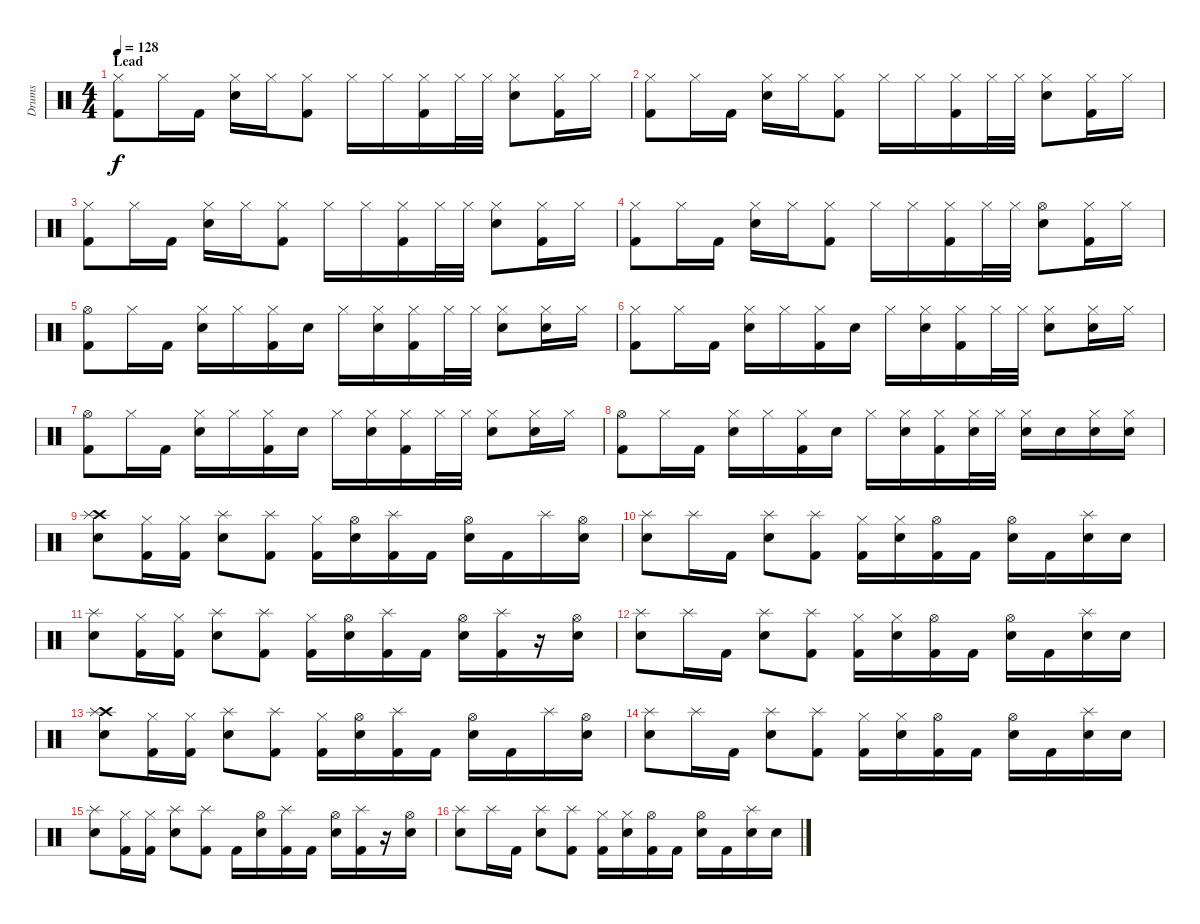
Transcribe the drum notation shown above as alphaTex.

\track ("Drums" "Drums") {instrument percussion}
\staff {score}
\articulation defaults
\ts (4 4)
\section ("" "Lead")
\tempo 128
\clef neutral
\ks c
("Hi-Hat (closed)" "Kick (hit) 2").8{dy f} "Hi-Hat (closed)".16 "Kick (hit) 2".16 ("Hi-Hat (closed)" "Snare (hit) 2").16 "Hi-Hat (closed)".16 ("Hi-Hat (closed)" "Kick (hit) 2").8 "Hi-Hat (closed)".16 "Hi-Hat (closed)".16 ("Hi-Hat (closed)" "Kick (hit) 2").16 "Hi-Hat (closed)".32 "Hi-Hat (closed)".32 ("Hi-Hat (closed)" "Snare (hit) 2").8 ("Hi-Hat (closed)" "Kick (hit) 2").16 "Hi-Hat (closed)".16 |
("Hi-Hat (closed)" "Kick (hit) 2").8 "Hi-Hat (closed)".16 "Kick (hit) 2".16 ("Hi-Hat (closed)" "Snare (hit) 2").16 "Hi-Hat (closed)".16 ("Hi-Hat (closed)" "Kick (hit) 2").8 "Hi-Hat (closed)".16 "Hi-Hat (closed)".16 ("Hi-Hat (closed)" "Kick (hit) 2").16 "Hi-Hat (closed)".32 "Hi-Hat (closed)".32 ("Hi-Hat (closed)" "Snare (hit) 2").8 ("Hi-Hat (closed)" "Kick (hit) 2").16 "Hi-Hat (closed)".16 |
("Hi-Hat (closed)" "Kick (hit) 2").8 "Hi-Hat (closed)".16 "Kick (hit) 2".16 ("Hi-Hat (closed)" "Snare (hit) 2").16 "Hi-Hat (closed)".16 ("Hi-Hat (closed)" "Kick (hit) 2").8 "Hi-Hat (closed)".16 "Hi-Hat (closed)".16 ("Hi-Hat (closed)" "Kick (hit) 2").16 "Hi-Hat (closed)".32 "Hi-Hat (closed)".32 ("Hi-Hat (closed)" "Snare (hit) 2").8 ("Hi-Hat (closed)" "Kick (hit) 2").16 "Hi-Hat (closed)".16 |
("Hi-Hat (closed)" "Kick (hit) 2").8 "Hi-Hat (closed)".16 "Kick (hit) 2".16 ("Hi-Hat (closed)" "Snare (hit) 2").16 "Hi-Hat (closed)".16 ("Hi-Hat (closed)" "Kick (hit) 2").8 "Hi-Hat (closed)".16 "Hi-Hat (closed)".16 ("Hi-Hat (closed)" "Kick (hit) 2").16 "Hi-Hat (closed)".32 "Hi-Hat (closed)".32 ("Hi-Hat (open)" "Snare (hit) 2").8 ("Hi-Hat (closed)" "Kick (hit) 2").16 "Hi-Hat (closed)".16 |
("Hi-Hat (open)" "Kick (hit) 2").8 "Hi-Hat (closed)".16 "Kick (hit) 2".16 ("Hi-Hat (closed)" "Snare (hit) 2").16 "Hi-Hat (closed)".16 ("Hi-Hat (closed)" "Kick (hit) 2").16 "Snare (hit) 2".16 "Hi-Hat (closed)".16 ("Hi-Hat (closed)" "Snare (hit) 2").16 ("Hi-Hat (closed)" "Kick (hit) 2").16 "Hi-Hat (closed)".32 "Hi-Hat (closed)".32 ("Hi-Hat (closed)" "Snare (hit) 2").8 ("Hi-Hat (closed)" "Snare (hit) 2").16 "Hi-Hat (closed)".16 |
("Hi-Hat (closed)" "Kick (hit) 2").8 "Hi-Hat (closed)".16 "Kick (hit) 2".16 ("Hi-Hat (closed)" "Snare (hit) 2").16 "Hi-Hat (closed)".16 ("Hi-Hat (closed)" "Kick (hit) 2").16 "Snare (hit) 2".16 "Hi-Hat (closed)".16 ("Hi-Hat (closed)" "Snare (hit) 2").16 ("Hi-Hat (closed)" "Kick (hit) 2").16 "Hi-Hat (closed)".32 "Hi-Hat (closed)".32 ("Hi-Hat (closed)" "Snare (hit) 2").8 ("Hi-Hat (closed)" "Snare (hit) 2").16 "Hi-Hat (closed)".16 |
("Hi-Hat (open)" "Kick (hit) 2").8 "Hi-Hat (closed)".16 "Kick (hit) 2".16 ("Hi-Hat (closed)" "Snare (hit) 2").16 "Hi-Hat (closed)".16 ("Hi-Hat (closed)" "Kick (hit) 2").16 "Snare (hit) 2".16 "Hi-Hat (closed)".16 ("Hi-Hat (closed)" "Snare (hit) 2").16 ("Hi-Hat (closed)" "Kick (hit) 2").16 "Hi-Hat (closed)".32 "Hi-Hat (closed)".32 ("Hi-Hat (closed)" "Snare (hit) 2").8 ("Hi-Hat (closed)" "Snare (hit) 2").16 "Hi-Hat (closed)".16 |
("Hi-Hat (open)" "Kick (hit) 2").8 "Hi-Hat (closed)".16 "Kick (hit) 2".16 ("Hi-Hat (closed)" "Snare (hit) 2").16 "Hi-Hat (closed)".16 ("Hi-Hat (closed)" "Kick (hit) 2").16 "Snare (hit) 2".16 "Hi-Hat (closed)".16 ("Hi-Hat (closed)" "Snare (hit) 2").16 ("Hi-Hat (closed)" "Kick (hit) 2").16 ("Hi-Hat (closed)" "Snare (hit) 2").32 "Hi-Hat (closed)".32 ("Hi-Hat (closed)" "Snare (hit) 2").16 "Snare (hit) 2".16 ("Hi-Hat (closed)" "Snare (hit) 2").16 ("Hi-Hat (closed)" "Snare (hit) 2").16 |
("Crash high (hit)" "Splash (hit)" "Snare (hit) 2").8 ("Hi-Hat (closed)" "Kick (hit) 2").16 ("Hi-Hat (closed)" "Kick (hit) 2").16 ("Splash (hit)" "Snare (hit) 2").8 ("Splash (hit)" "Kick (hit) 2").8 ("Hi-Hat (closed)" "Kick (hit) 2").16 ("Hi-Hat (open)" "Snare (hit) 2").16 ("Splash (hit)" "Kick (hit) 2").16 "Kick (hit) 2".16 ("Hi-Hat (open)" "Snare (hit) 2").16 "Kick (hit) 2".16 "Splash (hit)".16 ("Hi-Hat (open)" "Snare (hit) 2").16 |
("Splash (hit)" "Snare (hit) 2").8 "Splash (hit)".16 "Kick (hit) 2".16 ("Splash (hit)" "Snare (hit) 2").8 ("Splash (hit)" "Kick (hit) 2").8 ("Hi-Hat (closed)" "Kick (hit) 2").16 ("Hi-Hat (closed)" "Snare (hit) 2").16 ("Hi-Hat (open)" "Kick (hit) 2").16 "Kick (hit) 2".16 ("Hi-Hat (open)" "Snare (hit) 2").16 "Kick (hit) 2".16 ("Splash (hit)" "Snare (hit) 2").16 "Snare (hit) 2".16 |
("Splash (hit)" "Snare (hit) 2").8 ("Hi-Hat (closed)" "Kick (hit) 2").16 ("Hi-Hat (closed)" "Kick (hit) 2").16 ("Splash (hit)" "Snare (hit) 2").8 ("Splash (hit)" "Kick (hit) 2").8 ("Hi-Hat (closed)" "Kick (hit) 2").16 ("Hi-Hat (open)" "Snare (hit) 2").16 ("Splash (hit)" "Kick (hit) 2").16 "Kick (hit) 2".16 ("Hi-Hat (open)" "Snare (hit) 2").16 ("Splash (hit)" "Kick (hit) 2").16 r.16 ("Hi-Hat (open)" "Snare (hit) 2").16 |
("Splash (hit)" "Snare (hit) 2").8 "Splash (hit)".16 "Kick (hit) 2".16 ("Splash (hit)" "Snare (hit) 2").8 ("Splash (hit)" "Kick (hit) 2").8 ("Hi-Hat (closed)" "Kick (hit) 2").16 ("Hi-Hat (closed)" "Snare (hit) 2").16 ("Hi-Hat (open)" "Kick (hit) 2").16 "Kick (hit) 2".16 ("Hi-Hat (open)" "Snare (hit) 2").16 "Kick (hit) 2".16 ("Splash (hit)" "Snare (hit) 2").16 "Snare (hit) 2".16 |
("Crash high (hit)" "Splash (hit)" "Snare (hit) 2").8 ("Hi-Hat (closed)" "Kick (hit) 2").16 ("Hi-Hat (closed)" "Kick (hit) 2").16 ("Splash (hit)" "Snare (hit) 2").8 ("Splash (hit)" "Kick (hit) 2").8 ("Hi-Hat (closed)" "Kick (hit) 2").16 ("Hi-Hat (open)" "Snare (hit) 2").16 ("Splash (hit)" "Kick (hit) 2").16 "Kick (hit) 2".16 ("Hi-Hat (open)" "Snare (hit) 2").16 "Kick (hit) 2".16 "Splash (hit)".16 ("Hi-Hat (open)" "Snare (hit) 2").16 |
("Splash (hit)" "Snare (hit) 2").8 "Splash (hit)".16 "Kick (hit) 2".16 ("Splash (hit)" "Snare (hit) 2").8 ("Splash (hit)" "Kick (hit) 2").8 ("Hi-Hat (closed)" "Kick (hit) 2").16 ("Hi-Hat (closed)" "Snare (hit) 2").16 ("Hi-Hat (open)" "Kick (hit) 2").16 "Kick (hit) 2".16 ("Hi-Hat (open)" "Snare (hit) 2").16 "Kick (hit) 2".16 ("Splash (hit)" "Snare (hit) 2").16 "Snare (hit) 2".16 |
("Splash (hit)" "Snare (hit) 2").8 ("Hi-Hat (closed)" "Kick (hit) 2").16 ("Hi-Hat (closed)" "Kick (hit) 2").16 ("Splash (hit)" "Snare (hit) 2").8 ("Splash (hit)" "Kick (hit) 2").8 "Kick (hit) 2".16 ("Hi-Hat (open)" "Snare (hit) 2").16 ("Splash (hit)" "Kick (hit) 2").16 "Kick (hit) 2".16 ("Hi-Hat (open)" "Snare (hit) 2").16 ("Splash (hit)" "Kick (hit) 2").16 r.16 ("Hi-Hat (open)" "Snare (hit) 2").16 |
("Splash (hit)" "Snare (hit) 2").8 "Splash (hit)".16 "Kick (hit) 2".16 ("Splash (hit)" "Snare (hit) 2").8 ("Splash (hit)" "Kick (hit) 2").8 ("Hi-Hat (closed)" "Kick (hit) 2").16 ("Hi-Hat (closed)" "Snare (hit) 2").16 ("Hi-Hat (open)" "Kick (hit) 2").16 "Kick (hit) 2".16 ("Hi-Hat (open)" "Snare (hit) 2").16 "Kick (hit) 2".16 ("Splash (hit)" "Snare (hit) 2").16 "Snare (hit) 2".16
